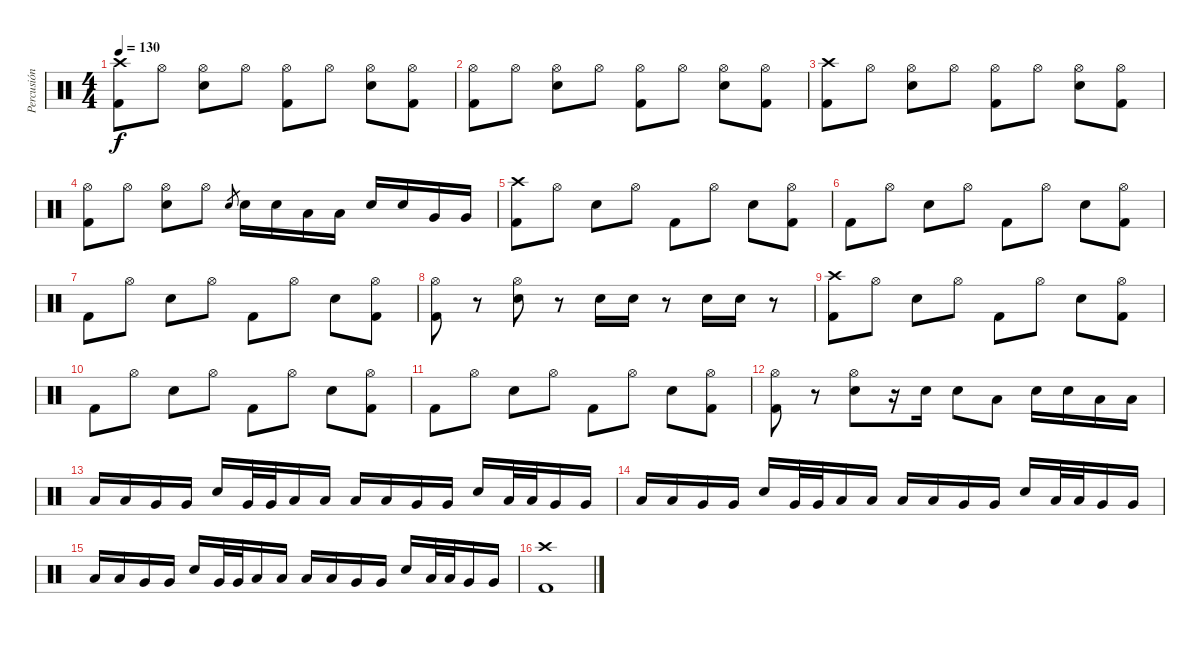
\track ("Percusión" "Percusión") {instrument percussion}
\staff {score}
\articulation defaults
\ts (4 4)
\tempo 130
\clef neutral
\ks c
("Crash high (hit)" "Kick (hit) 2").8{dy f} "Hi-Hat (open)".8 ("Hi-Hat (open)" "Electric Snare (hit)").8 "Hi-Hat (open)".8 ("Hi-Hat (open)" "Kick (hit) 2").8 "Hi-Hat (open)".8 ("Hi-Hat (open)" "Electric Snare (hit)").8 ("Hi-Hat (open)" "Kick (hit) 2").8 |
("Hi-Hat (open)" "Kick (hit) 2").8 "Hi-Hat (open)".8 ("Hi-Hat (open)" "Electric Snare (hit)").8 "Hi-Hat (open)".8 ("Hi-Hat (open)" "Kick (hit) 2").8 "Hi-Hat (open)".8 ("Hi-Hat (open)" "Electric Snare (hit)").8 ("Hi-Hat (open)" "Kick (hit) 2").8 |
("Crash high (hit)" "Kick (hit) 2").8 "Hi-Hat (open)".8 ("Hi-Hat (open)" "Electric Snare (hit)").8 "Hi-Hat (open)".8 ("Hi-Hat (open)" "Kick (hit) 2").8 "Hi-Hat (open)".8 ("Hi-Hat (open)" "Electric Snare (hit)").8 ("Hi-Hat (open)" "Kick (hit) 2").8 |
("Hi-Hat (open)" "Kick (hit) 2").8 "Hi-Hat (open)".8 ("Hi-Hat (open)" "Electric Snare (hit)").8 "Hi-Hat (open)".8 "Electric Snare (hit)".8{gr} "Electric Snare (hit)".16 "Electric Snare (hit)".16 "Low Tom (hit)".16 "Low Tom (hit)".16 "Electric Snare (hit)".16 "Electric Snare (hit)".16 "Very Low Tom (hit)".16 "Very Low Tom (hit)".16 |
("Crash high (hit)" "Kick (hit) 2").8 "Hi-Hat (open)".8 "Electric Snare (hit)".8 "Hi-Hat (open)".8 "Kick (hit) 2".8 "Hi-Hat (open)".8 "Electric Snare (hit)".8 ("Hi-Hat (open)" "Kick (hit) 2").8 |
"Kick (hit) 2".8 "Hi-Hat (open)".8 "Electric Snare (hit)".8 "Hi-Hat (open)".8 "Kick (hit) 2".8 "Hi-Hat (open)".8 "Electric Snare (hit)".8 ("Hi-Hat (open)" "Kick (hit) 2").8 |
"Kick (hit) 2".8 "Hi-Hat (open)".8 "Electric Snare (hit)".8 "Hi-Hat (open)".8 "Kick (hit) 2".8 "Hi-Hat (open)".8 "Electric Snare (hit)".8 ("Hi-Hat (open)" "Kick (hit) 2").8 |
("Hi-Hat (open)" "Kick (hit) 2").8 r.8 ("Hi-Hat (open)" "Electric Snare (hit)").8 r.8 "Electric Snare (hit)".16 "Electric Snare (hit)".16 r.8 "Electric Snare (hit)".16 "Electric Snare (hit)".16 r.8 |
("Crash high (hit)" "Kick (hit) 2").8 "Hi-Hat (open)".8 "Electric Snare (hit)".8 "Hi-Hat (open)".8 "Kick (hit) 2".8 "Hi-Hat (open)".8 "Electric Snare (hit)".8 ("Hi-Hat (open)" "Kick (hit) 2").8 |
"Kick (hit) 2".8 "Hi-Hat (open)".8 "Electric Snare (hit)".8 "Hi-Hat (open)".8 "Kick (hit) 2".8 "Hi-Hat (open)".8 "Electric Snare (hit)".8 ("Hi-Hat (open)" "Kick (hit) 2").8 |
"Kick (hit) 2".8 "Hi-Hat (open)".8 "Electric Snare (hit)".8 "Hi-Hat (open)".8 "Kick (hit) 2".8 "Hi-Hat (open)".8 "Electric Snare (hit)".8 ("Hi-Hat (open)" "Kick (hit) 2").8 |
("Hi-Hat (open)" "Kick (hit) 2").8 r.8 ("Hi-Hat (open)" "Electric Snare (hit)").8 r.16 "Electric Snare (hit)".16 "Electric Snare (hit)".8 "Low Tom (hit)".8 "Electric Snare (hit)".16 "Electric Snare (hit)".16 "Low Tom (hit)".16 "Low Tom (hit)".16 |
"Low Tom (hit)".16 "Low Tom (hit)".16 "Very Low Tom (hit)".16 "Very Low Tom (hit)".16 "Electric Snare (hit)".16 "Very Low Tom (hit)".32 "Very Low Tom (hit)".32 "Low Floor Tom (hit)".16 "Low Floor Tom (hit)".16 "Low Tom (hit)".16 "Low Tom (hit)".16 "Very Low Tom (hit)".16 "Very Low Tom (hit)".16 "Electric Snare (hit)".16 "Low Tom (hit)".32 "Low Tom (hit)".32 "Very Low Tom (hit)".16 "Very Low Tom (hit)".16 |
"Low Tom (hit)".16 "Low Tom (hit)".16 "Very Low Tom (hit)".16 "Very Low Tom (hit)".16 "Electric Snare (hit)".16 "Very Low Tom (hit)".32 "Very Low Tom (hit)".32 "Low Floor Tom (hit)".16 "Low Floor Tom (hit)".16 "Low Tom (hit)".16 "Low Tom (hit)".16 "Very Low Tom (hit)".16 "Very Low Tom (hit)".16 "Electric Snare (hit)".16 "Low Tom (hit)".32 "Low Tom (hit)".32 "Very Low Tom (hit)".16 "Very Low Tom (hit)".16 |
"Low Tom (hit)".16 "Low Tom (hit)".16 "Very Low Tom (hit)".16 "Very Low Tom (hit)".16 "Electric Snare (hit)".16 "Very Low Tom (hit)".32 "Very Low Tom (hit)".32 "Low Floor Tom (hit)".16 "Low Floor Tom (hit)".16 "Low Tom (hit)".16 "Low Tom (hit)".16 "Very Low Tom (hit)".16 "Very Low Tom (hit)".16 "Electric Snare (hit)".16 "Low Tom (hit)".32 "Low Tom (hit)".32 "Very Low Tom (hit)".16 "Very Low Tom (hit)".16 |
("Crash high (hit)" "Kick (hit) 2").1
